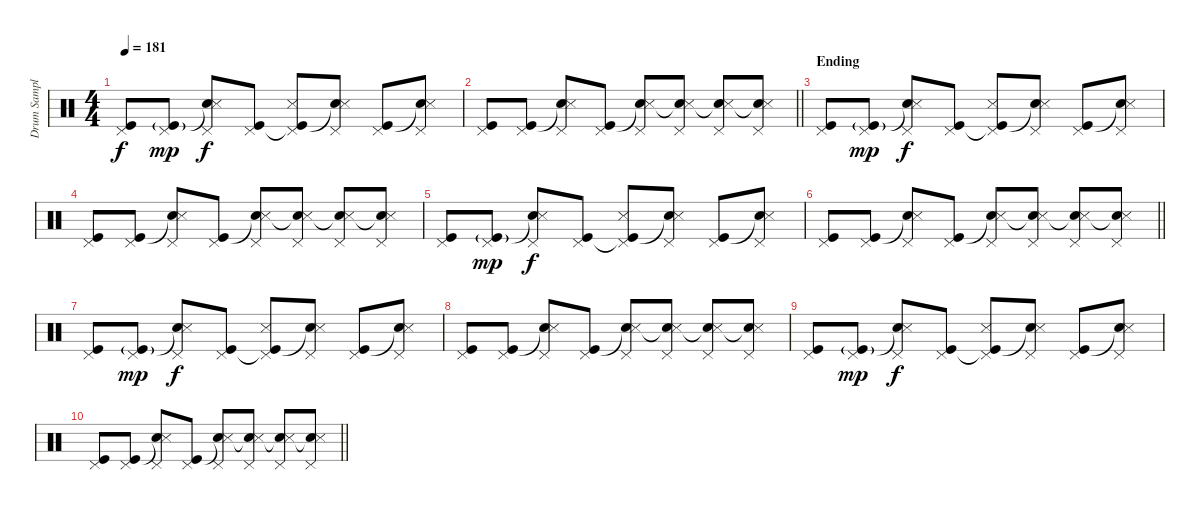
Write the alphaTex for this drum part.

\track ("Drum Sample" "Drum Sampl") {instrument percussion}
\staff {score}
\articulation defaults
\ts (4 4)
\tempo 181
\clef neutral
\ks c
("Kick (hit)" "Pedal Hi-Hat (hit)").8{dy f} ("Kick (hit)"{g} "Pedal Hi-Hat (hit)").8{dy mp} ("Snare (hit)"{t} "Snare (side stick) 3" "Pedal Hi-Hat (hit)").8{dy f} ("Kick (hit)" "Pedal Hi-Hat (hit)").8 ("Kick (hit)"{t} "Metronome (hit)" "Pedal Hi-Hat (hit)").8 ("Snare (hit)"{t} "Snare (side stick) 3" "Pedal Hi-Hat (hit)").8 ("Kick (hit)" "Pedal Hi-Hat (hit)").8 ("Snare (hit)"{t} "Snare (side stick) 3" "Pedal Hi-Hat (hit)").8 |
\barLineRight lightlight
("Kick (hit)" "Pedal Hi-Hat (hit)").8 ("Kick (hit)" "Pedal Hi-Hat (hit)").8 ("Snare (hit)"{t} "Snare (side stick) 3" "Pedal Hi-Hat (hit)").8 ("Kick (hit)" "Pedal Hi-Hat (hit)").8 ("Snare (hit)"{t} "Metronome (hit)" "Pedal Hi-Hat (hit)").8 ("Snare (hit)"{t} "Metronome (hit)" "Pedal Hi-Hat (hit)").8 ("Snare (hit)"{t} "Snare (side stick) 3" "Pedal Hi-Hat (hit)").8 ("Snare (hit)"{t} "Snare (side stick) 3" "Pedal Hi-Hat (hit)").8 |
\section ("" "Ending")
("Kick (hit)" "Pedal Hi-Hat (hit)").8 ("Kick (hit)"{g} "Pedal Hi-Hat (hit)").8{dy mp} ("Snare (hit)"{t} "Snare (side stick) 3" "Pedal Hi-Hat (hit)").8{dy f} ("Kick (hit)" "Pedal Hi-Hat (hit)").8 ("Kick (hit)"{t} "Metronome (hit)" "Pedal Hi-Hat (hit)").8 ("Snare (hit)"{t} "Snare (side stick) 3" "Pedal Hi-Hat (hit)").8 ("Kick (hit)" "Pedal Hi-Hat (hit)").8 ("Snare (hit)"{t} "Snare (side stick) 3" "Pedal Hi-Hat (hit)").8 |
("Kick (hit)" "Pedal Hi-Hat (hit)").8 ("Kick (hit)" "Pedal Hi-Hat (hit)").8 ("Snare (hit)"{t} "Snare (side stick) 3" "Pedal Hi-Hat (hit)").8 ("Kick (hit)" "Pedal Hi-Hat (hit)").8 ("Snare (hit)"{t} "Metronome (hit)" "Pedal Hi-Hat (hit)").8 ("Snare (hit)"{t} "Metronome (hit)" "Pedal Hi-Hat (hit)").8 ("Snare (hit)"{t} "Snare (side stick) 3" "Pedal Hi-Hat (hit)").8 ("Snare (hit)"{t} "Snare (side stick) 3" "Pedal Hi-Hat (hit)").8 |
("Kick (hit)" "Pedal Hi-Hat (hit)").8 ("Kick (hit)"{g} "Pedal Hi-Hat (hit)").8{dy mp} ("Snare (hit)"{t} "Snare (side stick) 3" "Pedal Hi-Hat (hit)").8{dy f} ("Kick (hit)" "Pedal Hi-Hat (hit)").8 ("Kick (hit)"{t} "Metronome (hit)" "Pedal Hi-Hat (hit)").8 ("Snare (hit)"{t} "Snare (side stick) 3" "Pedal Hi-Hat (hit)").8 ("Kick (hit)" "Pedal Hi-Hat (hit)").8 ("Snare (hit)"{t} "Snare (side stick) 3" "Pedal Hi-Hat (hit)").8 |
\barLineRight lightlight
("Kick (hit)" "Pedal Hi-Hat (hit)").8 ("Kick (hit)" "Pedal Hi-Hat (hit)").8 ("Snare (hit)"{t} "Snare (side stick) 3" "Pedal Hi-Hat (hit)").8 ("Kick (hit)" "Pedal Hi-Hat (hit)").8 ("Snare (hit)"{t} "Metronome (hit)" "Pedal Hi-Hat (hit)").8 ("Snare (hit)"{t} "Metronome (hit)" "Pedal Hi-Hat (hit)").8 ("Snare (hit)"{t} "Snare (side stick) 3" "Pedal Hi-Hat (hit)").8 ("Snare (hit)"{t} "Snare (side stick) 3" "Pedal Hi-Hat (hit)").8 |
("Kick (hit)" "Pedal Hi-Hat (hit)").8 ("Kick (hit)"{g} "Pedal Hi-Hat (hit)").8{dy mp} ("Snare (hit)"{t} "Snare (side stick) 3" "Pedal Hi-Hat (hit)").8{dy f} ("Kick (hit)" "Pedal Hi-Hat (hit)").8 ("Kick (hit)"{t} "Metronome (hit)" "Pedal Hi-Hat (hit)").8 ("Snare (hit)"{t} "Snare (side stick) 3" "Pedal Hi-Hat (hit)").8 ("Kick (hit)" "Pedal Hi-Hat (hit)").8 ("Snare (hit)"{t} "Snare (side stick) 3" "Pedal Hi-Hat (hit)").8 |
("Kick (hit)" "Pedal Hi-Hat (hit)").8 ("Kick (hit)" "Pedal Hi-Hat (hit)").8 ("Snare (hit)"{t} "Snare (side stick) 3" "Pedal Hi-Hat (hit)").8 ("Kick (hit)" "Pedal Hi-Hat (hit)").8 ("Snare (hit)"{t} "Metronome (hit)" "Pedal Hi-Hat (hit)").8 ("Snare (hit)"{t} "Metronome (hit)" "Pedal Hi-Hat (hit)").8 ("Snare (hit)"{t} "Snare (side stick) 3" "Pedal Hi-Hat (hit)").8 ("Snare (hit)"{t} "Snare (side stick) 3" "Pedal Hi-Hat (hit)").8 |
("Kick (hit)" "Pedal Hi-Hat (hit)").8 ("Kick (hit)"{g} "Pedal Hi-Hat (hit)").8{dy mp} ("Snare (hit)"{t} "Snare (side stick) 3" "Pedal Hi-Hat (hit)").8{dy f} ("Kick (hit)" "Pedal Hi-Hat (hit)").8 ("Kick (hit)"{t} "Metronome (hit)" "Pedal Hi-Hat (hit)").8 ("Snare (hit)"{t} "Snare (side stick) 3" "Pedal Hi-Hat (hit)").8 ("Kick (hit)" "Pedal Hi-Hat (hit)").8 ("Snare (hit)"{t} "Snare (side stick) 3" "Pedal Hi-Hat (hit)").8 |
\barLineRight lightlight
("Kick (hit)" "Pedal Hi-Hat (hit)").8 ("Kick (hit)" "Pedal Hi-Hat (hit)").8 ("Snare (hit)"{t} "Snare (side stick) 3" "Pedal Hi-Hat (hit)").8 ("Kick (hit)" "Pedal Hi-Hat (hit)").8 ("Snare (hit)"{t} "Metronome (hit)" "Pedal Hi-Hat (hit)").8 ("Snare (hit)"{t} "Metronome (hit)" "Pedal Hi-Hat (hit)").8 ("Snare (hit)"{t} "Snare (side stick) 3" "Pedal Hi-Hat (hit)").8 ("Snare (hit)"{t} "Snare (side stick) 3" "Pedal Hi-Hat (hit)").8
